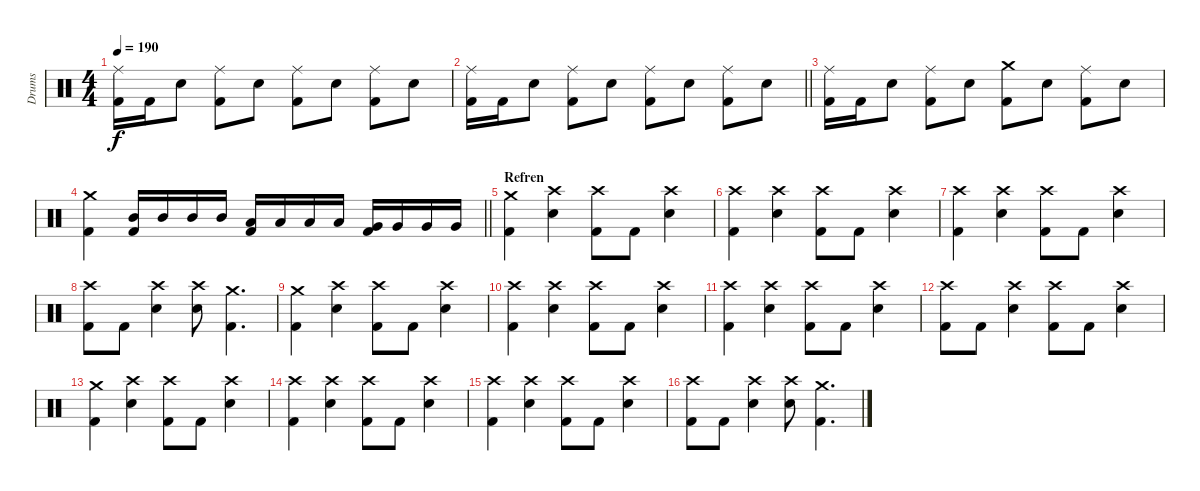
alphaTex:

\track ("Drums" "Drums") {instrument percussion}
\staff {score}
\articulation defaults
\ts (4 4)
\tempo 190
\clef neutral
\ks c
("Ride (middle)" "Kick (hit) 2").16{dy f} "Kick (hit) 2".16 "Snare (hit) 2".8 ("Ride (middle)" "Kick (hit) 2").8 "Snare (hit) 2".8 ("Ride (middle)" "Kick (hit) 2").8 "Snare (hit) 2".8 ("Ride (middle)" "Kick (hit) 2").8 "Snare (hit) 2".8 |
\barLineRight lightlight
("Ride (middle)" "Kick (hit) 2").16 "Kick (hit) 2".16 "Snare (hit) 2".8 ("Ride (middle)" "Kick (hit) 2").8 "Snare (hit) 2".8 ("Ride (middle)" "Kick (hit) 2").8 "Snare (hit) 2".8 ("Ride (middle)" "Kick (hit) 2").8 "Snare (hit) 2".8 |
("Ride (middle)" "Kick (hit) 2").16 "Kick (hit) 2".16 "Snare (hit) 2".8 ("Ride (middle)" "Kick (hit) 2").8 "Snare (hit) 2".8 ("Crash medium (hit)" "Kick (hit) 2").8 "Snare (hit) 2".8 ("Ride (middle)" "Kick (hit) 2").8 "Snare (hit) 2".8 |
\barLineRight lightlight
("Crash medium (hit)" "Kick (hit) 2").4 ("Mid Tom (hit)" "Kick (hit) 2").16 "Mid Tom (hit)".16 "Mid Tom (hit)".16 "Mid Tom (hit)".16 ("Low Tom (hit)" "Kick (hit) 2").16 "Low Tom (hit)".16 "Low Tom (hit)".16 "Low Tom (hit)".16 ("Very Low Tom (hit)" "Kick (hit) 2").16 "Very Low Tom (hit)".16 "Very Low Tom (hit)".16 "Very Low Tom (hit)".16 |
\section ("" "Refren")
("Crash medium (hit)" "Kick (hit) 2").4 ("Crash high (hit)" "Snare (hit) 2").4 ("Crash high (hit)" "Kick (hit) 2").8 "Kick (hit) 2".8 ("Crash high (hit)" "Snare (hit) 2").4 |
("Crash high (hit)" "Kick (hit) 2").4 ("Crash high (hit)" "Snare (hit) 2").4 ("Crash high (hit)" "Kick (hit) 2").8 "Kick (hit) 2".8 ("Crash high (hit)" "Snare (hit) 2").4 |
("Crash high (hit)" "Kick (hit) 2").4 ("Crash high (hit)" "Snare (hit) 2").4 ("Crash high (hit)" "Kick (hit) 2").8 "Kick (hit) 2".8 ("Crash high (hit)" "Snare (hit) 2").4 |
("Crash high (hit)" "Kick (hit) 2").8 "Kick (hit) 2".8 ("Crash high (hit)" "Snare (hit) 2").4 ("Crash high (hit)" "Snare (hit) 2").8 ("Crash medium (hit)" "Kick (hit) 2").4{d} |
("Crash medium (hit)" "Kick (hit) 2").4 ("Crash high (hit)" "Snare (hit) 2").4 ("Crash high (hit)" "Kick (hit) 2").8 "Kick (hit) 2".8 ("Crash high (hit)" "Snare (hit) 2").4 |
("Crash high (hit)" "Kick (hit) 2").4 ("Crash high (hit)" "Snare (hit) 2").4 ("Crash high (hit)" "Kick (hit) 2").8 "Kick (hit) 2".8 ("Crash high (hit)" "Snare (hit) 2").4 |
("Crash high (hit)" "Kick (hit) 2").4 ("Crash high (hit)" "Snare (hit) 2").4 ("Crash high (hit)" "Kick (hit) 2").8 "Kick (hit) 2".8 ("Crash high (hit)" "Snare (hit) 2").4 |
("Crash high (hit)" "Kick (hit) 2").8 "Kick (hit) 2".8 ("Crash high (hit)" "Snare (hit) 2").4 ("Crash high (hit)" "Kick (hit) 2").8 "Kick (hit) 2".8 ("Crash high (hit)" "Snare (hit) 2").4 |
("Crash medium (hit)" "Kick (hit) 2").4 ("Crash high (hit)" "Snare (hit) 2").4 ("Crash high (hit)" "Kick (hit) 2").8 "Kick (hit) 2".8 ("Crash high (hit)" "Snare (hit) 2").4 |
("Crash high (hit)" "Kick (hit) 2").4 ("Crash high (hit)" "Snare (hit) 2").4 ("Crash high (hit)" "Kick (hit) 2").8 "Kick (hit) 2".8 ("Crash high (hit)" "Snare (hit) 2").4 |
("Crash high (hit)" "Kick (hit) 2").4 ("Crash high (hit)" "Snare (hit) 2").4 ("Crash high (hit)" "Kick (hit) 2").8 "Kick (hit) 2".8 ("Crash high (hit)" "Snare (hit) 2").4 |
("Crash high (hit)" "Kick (hit) 2").8 "Kick (hit) 2".8 ("Crash high (hit)" "Snare (hit) 2").4 ("Crash high (hit)" "Snare (hit) 2").8 ("Crash medium (hit)" "Kick (hit) 2").4{d}
